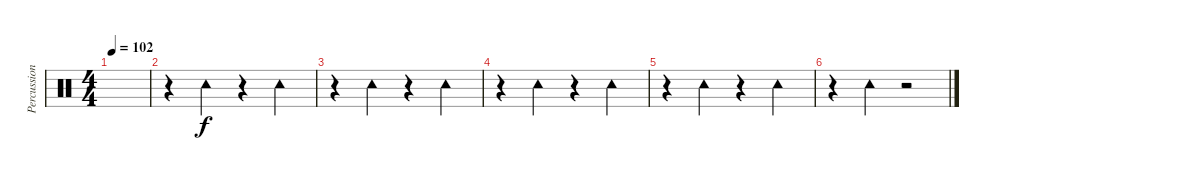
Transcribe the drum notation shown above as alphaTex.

\track ("Percussion" "Percussion") {instrument percussion}
\staff {score}
\articulation defaults
\ts (4 4)
\tempo 102
\clef neutral
\ks c
|
r.4 "Tambourine (hit)".4 r.4 "Tambourine (hit)".4 |
r.4 "Tambourine (hit)".4 r.4 "Tambourine (hit)".4 |
r.4 "Tambourine (hit)".4 r.4 "Tambourine (hit)".4 |
r.4 "Tambourine (hit)".4 r.4 "Tambourine (hit)".4 |
r.4 "Tambourine (hit)".4 r.2
